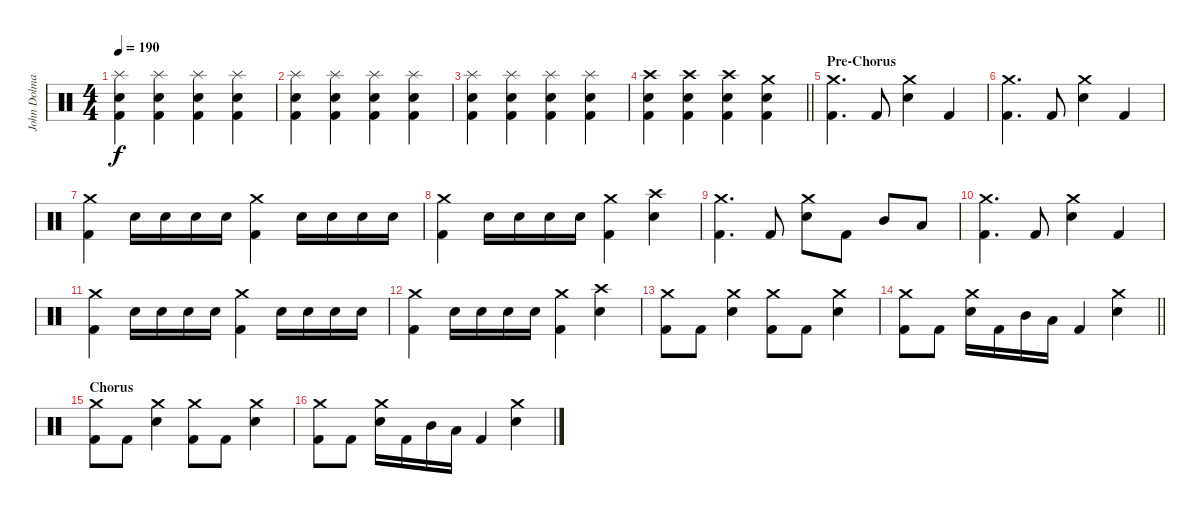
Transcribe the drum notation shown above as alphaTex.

\track ("John Dolmayan" "John Dolma") {instrument percussion}
\staff {score}
\articulation defaults
\ts (4 4)
\tempo 190
\clef neutral
\ks c
("Splash (hit)" "Electric Snare (hit)" "Kick (hit) 2").4{dy f} ("Splash (hit)" "Electric Snare (hit)" "Kick (hit) 2").4 ("Splash (hit)" "Electric Snare (hit)" "Kick (hit) 2").4 ("Splash (hit)" "Electric Snare (hit)" "Kick (hit) 2").4 |
("Splash (hit)" "Electric Snare (hit)" "Kick (hit) 2").4 ("Splash (hit)" "Electric Snare (hit)" "Kick (hit) 2").4 ("Splash (hit)" "Electric Snare (hit)" "Kick (hit) 2").4 ("Splash (hit)" "Electric Snare (hit)" "Kick (hit) 2").4 |
("Splash (hit)" "Electric Snare (hit)" "Kick (hit) 2").4 ("Splash (hit)" "Electric Snare (hit)" "Kick (hit) 2").4 ("Splash (hit)" "Electric Snare (hit)" "Kick (hit) 2").4 ("Splash (hit)" "Electric Snare (hit)" "Kick (hit) 2").4 |
\barLineRight lightlight
("Crash high (hit)" "Electric Snare (hit)" "Kick (hit) 2").4 ("Crash high (hit)" "Electric Snare (hit)" "Kick (hit) 2").4 ("Crash high (hit)" "Electric Snare (hit)" "Kick (hit) 2").4 ("Crash medium (hit)" "Electric Snare (hit)" "Kick (hit) 2").4 |
\section ("" "Pre-Chorus")
("Crash medium (hit)" "Kick (hit) 2").4{d} "Kick (hit) 2".8 ("Crash medium (hit)" "Electric Snare (hit)").4 "Kick (hit) 2".4 |
("Crash medium (hit)" "Kick (hit) 2").4{d} "Kick (hit) 2".8 ("Crash medium (hit)" "Electric Snare (hit)").4 "Kick (hit) 2".4 |
("Crash medium (hit)" "Kick (hit) 2").4 "Electric Snare (hit)".16 "Electric Snare (hit)".16 "Electric Snare (hit)".16 "Electric Snare (hit)".16 ("Crash medium (hit)" "Kick (hit) 2").4 "Electric Snare (hit)".16 "Electric Snare (hit)".16 "Electric Snare (hit)".16 "Electric Snare (hit)".16 |
("Crash medium (hit)" "Kick (hit) 2").4 "Electric Snare (hit)".16 "Electric Snare (hit)".16 "Electric Snare (hit)".16 "Electric Snare (hit)".16 ("Crash medium (hit)" "Kick (hit) 2").4 ("Crash high (hit)" "Electric Snare (hit)").4 |
("Crash medium (hit)" "Kick (hit) 2").4{d} "Kick (hit) 2".8 ("Crash medium (hit)" "Electric Snare (hit)").8 "Kick (hit) 2".8 "Mid Tom (hit)".8 "Low Floor Tom (hit)".8 |
("Crash medium (hit)" "Kick (hit) 2").4{d} "Kick (hit) 2".8 ("Crash medium (hit)" "Electric Snare (hit)").4 "Kick (hit) 2".4 |
("Crash medium (hit)" "Kick (hit) 2").4 "Electric Snare (hit)".16 "Electric Snare (hit)".16 "Electric Snare (hit)".16 "Electric Snare (hit)".16 ("Crash medium (hit)" "Kick (hit) 2").4 "Electric Snare (hit)".16 "Electric Snare (hit)".16 "Electric Snare (hit)".16 "Electric Snare (hit)".16 |
("Crash medium (hit)" "Kick (hit) 2").4 "Electric Snare (hit)".16 "Electric Snare (hit)".16 "Electric Snare (hit)".16 "Electric Snare (hit)".16 ("Crash medium (hit)" "Kick (hit) 2").4 ("Crash high (hit)" "Electric Snare (hit)").4 |
("Crash medium (hit)" "Kick (hit) 2").8 "Kick (hit) 2".8 ("Crash medium (hit)" "Electric Snare (hit)").4 ("Crash medium (hit)" "Kick (hit) 2").8 "Kick (hit) 2".8 ("Crash medium (hit)" "Electric Snare (hit)").4 |
\barLineRight lightlight
("Crash medium (hit)" "Kick (hit) 2").8 "Kick (hit) 2".8 ("Crash medium (hit)" "Electric Snare (hit)").16 "Kick (hit) 2".16 "Mid Tom (hit)".16 "Low Floor Tom (hit)".16 "Kick (hit) 2".4 ("Crash medium (hit)" "Electric Snare (hit)").4 |
\section ("" "Chorus")
("Crash medium (hit)" "Kick (hit) 2").8 "Kick (hit) 2".8 ("Crash medium (hit)" "Electric Snare (hit)").4 ("Crash medium (hit)" "Kick (hit) 2").8 "Kick (hit) 2".8 ("Crash medium (hit)" "Electric Snare (hit)").4 |
("Crash medium (hit)" "Kick (hit) 2").8 "Kick (hit) 2".8 ("Crash medium (hit)" "Electric Snare (hit)").16 "Kick (hit) 2".16 "Mid Tom (hit)".16 "Low Floor Tom (hit)".16 "Kick (hit) 2".4 ("Crash medium (hit)" "Electric Snare (hit)").4
